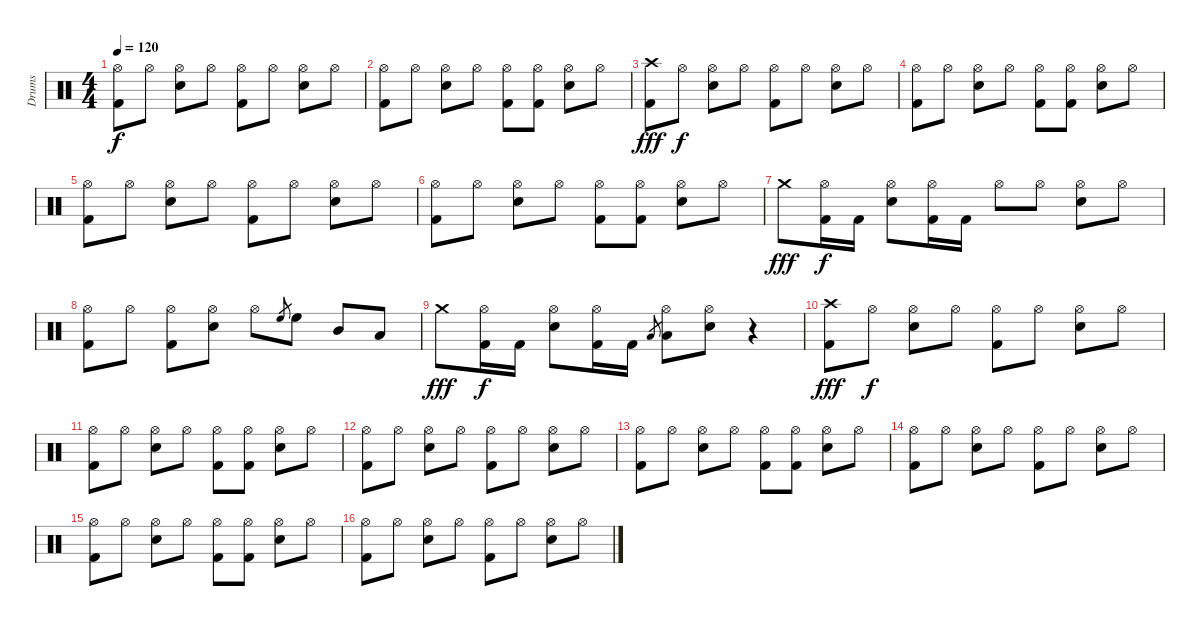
\track ("Drums" "Drums") {instrument percussion}
\staff {score}
\articulation defaults
\ts (4 4)
\tempo 120
\clef neutral
\ks c
("Hi-Hat (open)" "Kick (hit) 2").8{dy f} "Hi-Hat (open)".8 ("Hi-Hat (open)" "Electric Snare (hit)").8 "Hi-Hat (open)".8 ("Hi-Hat (open)" "Kick (hit) 2").8 "Hi-Hat (open)".8 ("Hi-Hat (open)" "Electric Snare (hit)").8 "Hi-Hat (open)".8 |
("Hi-Hat (open)" "Kick (hit) 2").8 "Hi-Hat (open)".8 ("Hi-Hat (open)" "Electric Snare (hit)").8 "Hi-Hat (open)".8 ("Hi-Hat (open)" "Kick (hit) 2").8 ("Hi-Hat (open)" "Kick (hit) 2").8 ("Hi-Hat (open)" "Electric Snare (hit)").8 "Hi-Hat (open)".8 |
("Crash high (hit)" "Kick (hit) 2").8{dy fff} "Hi-Hat (open)".8{dy f} ("Hi-Hat (open)" "Electric Snare (hit)").8 "Hi-Hat (open)".8 ("Hi-Hat (open)" "Kick (hit) 2").8 "Hi-Hat (open)".8 ("Hi-Hat (open)" "Electric Snare (hit)").8 "Hi-Hat (open)".8 |
("Hi-Hat (open)" "Kick (hit) 2").8 "Hi-Hat (open)".8 ("Hi-Hat (open)" "Electric Snare (hit)").8 "Hi-Hat (open)".8 ("Hi-Hat (open)" "Kick (hit) 2").8 ("Hi-Hat (open)" "Kick (hit) 2").8 ("Hi-Hat (open)" "Electric Snare (hit)").8 "Hi-Hat (open)".8 |
("Hi-Hat (open)" "Kick (hit) 2").8 "Hi-Hat (open)".8 ("Hi-Hat (open)" "Electric Snare (hit)").8 "Hi-Hat (open)".8 ("Hi-Hat (open)" "Kick (hit) 2").8 "Hi-Hat (open)".8 ("Hi-Hat (open)" "Electric Snare (hit)").8 "Hi-Hat (open)".8 |
("Hi-Hat (open)" "Kick (hit) 2").8 "Hi-Hat (open)".8 ("Hi-Hat (open)" "Electric Snare (hit)").8 "Hi-Hat (open)".8 ("Hi-Hat (open)" "Kick (hit) 2").8 ("Hi-Hat (open)" "Kick (hit) 2").8 ("Hi-Hat (open)" "Electric Snare (hit)").8 "Hi-Hat (open)".8 |
"Crash medium (hit)".8{dy fff} ("Hi-Hat (open)" "Kick (hit) 2").16{dy f} "Kick (hit) 2".16 ("Hi-Hat (open)" "Electric Snare (hit)").8 ("Hi-Hat (open)" "Kick (hit) 2").16 "Kick (hit) 2".16 "Hi-Hat (open)".8 "Hi-Hat (open)".8 ("Hi-Hat (open)" "Electric Snare (hit)").8 "Hi-Hat (open)".8 |
("Hi-Hat (open)" "Kick (hit) 2").8 "Hi-Hat (open)".8 ("Hi-Hat (open)" "Kick (hit) 2").8 ("Hi-Hat (open)" "Electric Snare (hit)").8 "Hi-Hat (open)".8 "High Floor Tom (hit)".8{gr} "High Floor Tom (hit)".8 "Mid Tom (hit)".8 "Low Tom (hit)".8 |
"Crash medium (hit)".8{dy fff} ("Hi-Hat (open)" "Kick (hit) 2").16{dy f} "Kick (hit) 2".16 ("Hi-Hat (open)" "Electric Snare (hit)").8 ("Hi-Hat (open)" "Kick (hit) 2").16 "Kick (hit) 2".16 "Low Tom (hit)".8{gr} ("Hi-Hat (open)" "Low Tom (hit)").8 ("Hi-Hat (open)" "Electric Snare (hit)").8 r.4 |
("Crash high (hit)" "Kick (hit) 2").8{dy fff} "Hi-Hat (open)".8{dy f} ("Hi-Hat (open)" "Electric Snare (hit)").8 "Hi-Hat (open)".8 ("Hi-Hat (open)" "Kick (hit) 2").8 "Hi-Hat (open)".8 ("Hi-Hat (open)" "Electric Snare (hit)").8 "Hi-Hat (open)".8 |
("Hi-Hat (open)" "Kick (hit) 2").8 "Hi-Hat (open)".8 ("Hi-Hat (open)" "Electric Snare (hit)").8 "Hi-Hat (open)".8 ("Hi-Hat (open)" "Kick (hit) 2").8 ("Hi-Hat (open)" "Kick (hit) 2").8 ("Hi-Hat (open)" "Electric Snare (hit)").8 "Hi-Hat (open)".8 |
("Hi-Hat (open)" "Kick (hit) 2").8 "Hi-Hat (open)".8 ("Hi-Hat (open)" "Electric Snare (hit)").8 "Hi-Hat (open)".8 ("Hi-Hat (open)" "Kick (hit) 2").8 "Hi-Hat (open)".8 ("Hi-Hat (open)" "Electric Snare (hit)").8 "Hi-Hat (open)".8 |
("Hi-Hat (open)" "Kick (hit) 2").8 "Hi-Hat (open)".8 ("Hi-Hat (open)" "Electric Snare (hit)").8 "Hi-Hat (open)".8 ("Hi-Hat (open)" "Kick (hit) 2").8 ("Hi-Hat (open)" "Kick (hit) 2").8 ("Hi-Hat (open)" "Electric Snare (hit)").8 "Hi-Hat (open)".8 |
("Hi-Hat (open)" "Kick (hit) 2").8 "Hi-Hat (open)".8 ("Hi-Hat (open)" "Electric Snare (hit)").8 "Hi-Hat (open)".8 ("Hi-Hat (open)" "Kick (hit) 2").8 "Hi-Hat (open)".8 ("Hi-Hat (open)" "Electric Snare (hit)").8 "Hi-Hat (open)".8 |
("Hi-Hat (open)" "Kick (hit) 2").8 "Hi-Hat (open)".8 ("Hi-Hat (open)" "Electric Snare (hit)").8 "Hi-Hat (open)".8 ("Hi-Hat (open)" "Kick (hit) 2").8 ("Hi-Hat (open)" "Kick (hit) 2").8 ("Hi-Hat (open)" "Electric Snare (hit)").8 "Hi-Hat (open)".8 |
("Hi-Hat (open)" "Kick (hit) 2").8 "Hi-Hat (open)".8 ("Hi-Hat (open)" "Electric Snare (hit)").8 "Hi-Hat (open)".8 ("Hi-Hat (open)" "Kick (hit) 2").8 "Hi-Hat (open)".8 ("Hi-Hat (open)" "Electric Snare (hit)").8 "Hi-Hat (open)".8
